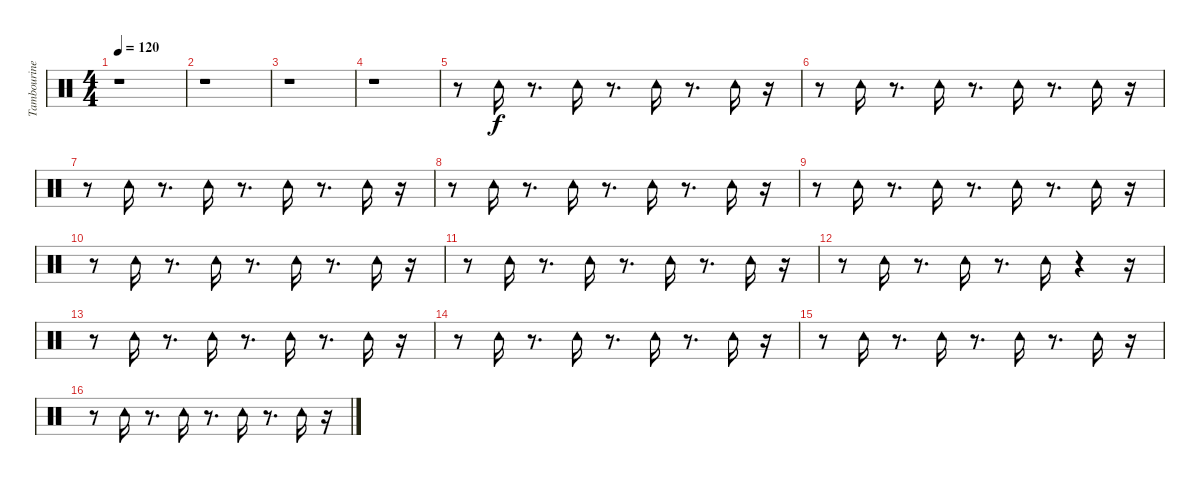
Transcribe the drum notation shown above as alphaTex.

\track ("Tambourine" "Tambourine") {instrument percussion}
\staff {score}
\articulation defaults
\ts (4 4)
\tempo 120
\clef neutral
\ks c
r.1{dy f} |
r.1 |
r.1 |
r.1 |
r.8 "Tambourine (hit)".16 r.8{d} "Tambourine (hit)".16 r.8{d} "Tambourine (hit)".16 r.8{d} "Tambourine (hit)".16 r.16 |
r.8 "Tambourine (hit)".16 r.8{d} "Tambourine (hit)".16 r.8{d} "Tambourine (hit)".16 r.8{d} "Tambourine (hit)".16 r.16 |
r.8 "Tambourine (hit)".16 r.8{d} "Tambourine (hit)".16 r.8{d} "Tambourine (hit)".16 r.8{d} "Tambourine (hit)".16 r.16 |
r.8 "Tambourine (hit)".16 r.8{d} "Tambourine (hit)".16 r.8{d} "Tambourine (hit)".16 r.8{d} "Tambourine (hit)".16 r.16 |
r.8 "Tambourine (hit)".16 r.8{d} "Tambourine (hit)".16 r.8{d} "Tambourine (hit)".16 r.8{d} "Tambourine (hit)".16 r.16 |
r.8 "Tambourine (hit)".16 r.8{d} "Tambourine (hit)".16 r.8{d} "Tambourine (hit)".16 r.8{d} "Tambourine (hit)".16 r.16 |
r.8 "Tambourine (hit)".16 r.8{d} "Tambourine (hit)".16 r.8{d} "Tambourine (hit)".16 r.8{d} "Tambourine (hit)".16 r.16 |
r.8 "Tambourine (hit)".16 r.8{d} "Tambourine (hit)".16 r.8{d} "Tambourine (hit)".16 r.4 r.16 |
r.8 "Tambourine (hit)".16 r.8{d} "Tambourine (hit)".16 r.8{d} "Tambourine (hit)".16 r.8{d} "Tambourine (hit)".16 r.16 |
r.8 "Tambourine (hit)".16 r.8{d} "Tambourine (hit)".16 r.8{d} "Tambourine (hit)".16 r.8{d} "Tambourine (hit)".16 r.16 |
r.8 "Tambourine (hit)".16 r.8{d} "Tambourine (hit)".16 r.8{d} "Tambourine (hit)".16 r.8{d} "Tambourine (hit)".16 r.16 |
r.8 "Tambourine (hit)".16 r.8{d} "Tambourine (hit)".16 r.8{d} "Tambourine (hit)".16 r.8{d} "Tambourine (hit)".16 r.16
